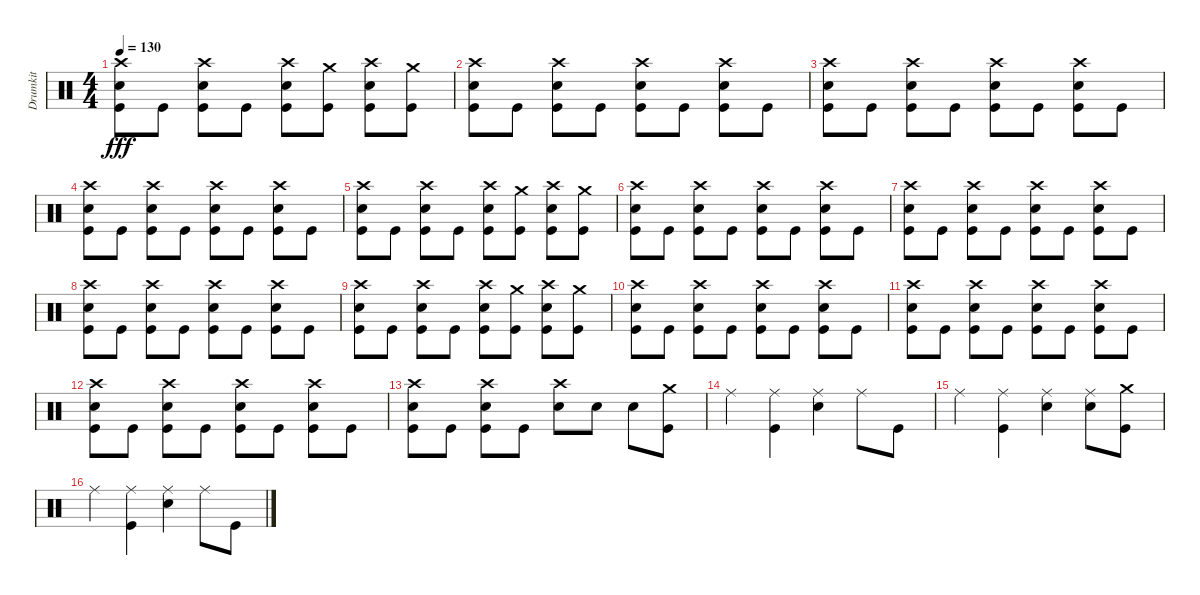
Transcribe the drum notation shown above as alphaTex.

\track ("Drumkit" "Drumkit") {instrument percussion}
\staff {score}
\articulation defaults
\ts (4 4)
\tempo 130
\clef neutral
\ks c
("Kick (hit)" "Snare (hit) 2" "Crash high (hit)").8{dy fff} "Kick (hit)".8 ("Kick (hit)" "Snare (hit) 2" "Crash high (hit)").8 "Kick (hit)".8 ("Kick (hit)" "Snare (hit) 2" "Crash high (hit)").8 ("Kick (hit)" "Crash medium (hit)").8 ("Kick (hit)" "Snare (hit) 2" "Crash high (hit)").8 ("Kick (hit)" "Crash medium (hit)").8 |
("Kick (hit)" "Snare (hit) 2" "Crash high (hit)").8 "Kick (hit)".8 ("Kick (hit)" "Snare (hit) 2" "Crash high (hit)").8 "Kick (hit)".8 ("Kick (hit)" "Snare (hit) 2" "Crash high (hit)").8 "Kick (hit)".8 ("Kick (hit)" "Snare (hit) 2" "Crash high (hit)").8 "Kick (hit)".8 |
("Kick (hit)" "Snare (hit) 2" "Crash high (hit)").8 "Kick (hit)".8 ("Kick (hit)" "Snare (hit) 2" "Crash high (hit)").8 "Kick (hit)".8 ("Kick (hit)" "Snare (hit) 2" "Crash high (hit)").8 "Kick (hit)".8 ("Kick (hit)" "Snare (hit) 2" "Crash high (hit)").8 "Kick (hit)".8 |
("Kick (hit)" "Snare (hit) 2" "Crash high (hit)").8 "Kick (hit)".8 ("Kick (hit)" "Snare (hit) 2" "Crash high (hit)").8 "Kick (hit)".8 ("Kick (hit)" "Snare (hit) 2" "Crash high (hit)").8 "Kick (hit)".8 ("Kick (hit)" "Snare (hit) 2" "Crash high (hit)").8 "Kick (hit)".8 |
("Kick (hit)" "Snare (hit) 2" "Crash high (hit)").8 "Kick (hit)".8 ("Kick (hit)" "Snare (hit) 2" "Crash high (hit)").8 "Kick (hit)".8 ("Kick (hit)" "Snare (hit) 2" "Crash high (hit)").8 ("Kick (hit)" "Crash medium (hit)").8 ("Kick (hit)" "Snare (hit) 2" "Crash high (hit)").8 ("Kick (hit)" "Crash medium (hit)").8 |
("Kick (hit)" "Snare (hit) 2" "Crash high (hit)").8 "Kick (hit)".8 ("Kick (hit)" "Snare (hit) 2" "Crash high (hit)").8 "Kick (hit)".8 ("Kick (hit)" "Snare (hit) 2" "Crash high (hit)").8 "Kick (hit)".8 ("Kick (hit)" "Snare (hit) 2" "Crash high (hit)").8 "Kick (hit)".8 |
("Kick (hit)" "Snare (hit) 2" "Crash high (hit)").8 "Kick (hit)".8 ("Kick (hit)" "Snare (hit) 2" "Crash high (hit)").8 "Kick (hit)".8 ("Kick (hit)" "Snare (hit) 2" "Crash high (hit)").8 "Kick (hit)".8 ("Kick (hit)" "Snare (hit) 2" "Crash high (hit)").8 "Kick (hit)".8 |
("Kick (hit)" "Snare (hit) 2" "Crash high (hit)").8 "Kick (hit)".8 ("Kick (hit)" "Snare (hit) 2" "Crash high (hit)").8 "Kick (hit)".8 ("Kick (hit)" "Snare (hit) 2" "Crash high (hit)").8 "Kick (hit)".8 ("Kick (hit)" "Snare (hit) 2" "Crash high (hit)").8 "Kick (hit)".8 |
("Kick (hit)" "Snare (hit) 2" "Crash high (hit)").8 "Kick (hit)".8 ("Kick (hit)" "Snare (hit) 2" "Crash high (hit)").8 "Kick (hit)".8 ("Kick (hit)" "Snare (hit) 2" "Crash high (hit)").8 ("Kick (hit)" "Crash medium (hit)").8 ("Kick (hit)" "Snare (hit) 2" "Crash high (hit)").8 ("Kick (hit)" "Crash medium (hit)").8 |
("Kick (hit)" "Snare (hit) 2" "Crash high (hit)").8 "Kick (hit)".8 ("Kick (hit)" "Snare (hit) 2" "Crash high (hit)").8 "Kick (hit)".8 ("Kick (hit)" "Snare (hit) 2" "Crash high (hit)").8 "Kick (hit)".8 ("Kick (hit)" "Snare (hit) 2" "Crash high (hit)").8 "Kick (hit)".8 |
("Kick (hit)" "Snare (hit) 2" "Crash high (hit)").8 "Kick (hit)".8 ("Kick (hit)" "Snare (hit) 2" "Crash high (hit)").8 "Kick (hit)".8 ("Kick (hit)" "Snare (hit) 2" "Crash high (hit)").8 "Kick (hit)".8 ("Kick (hit)" "Snare (hit) 2" "Crash high (hit)").8 "Kick (hit)".8 |
("Kick (hit)" "Snare (hit) 2" "Crash high (hit)").8 "Kick (hit)".8 ("Kick (hit)" "Snare (hit) 2" "Crash high (hit)").8 "Kick (hit)".8 ("Kick (hit)" "Snare (hit) 2" "Crash high (hit)").8 "Kick (hit)".8 ("Kick (hit)" "Snare (hit) 2" "Crash high (hit)").8 "Kick (hit)".8 |
("Kick (hit)" "Snare (hit) 2" "Crash high (hit)").8 "Kick (hit)".8 ("Kick (hit)" "Snare (hit) 2" "Crash high (hit)").8 "Kick (hit)".8 ("Snare (hit) 2" "Crash high (hit)").8 "Snare (hit) 2".8 "Snare (hit) 2".8 ("Crash medium (hit)" "Kick (hit)").8 |
"Ride (middle)".4 ("Ride (middle)" "Kick (hit)").4 ("Ride (middle)" "Snare (hit) 2").4 "Ride (middle)".8 "Kick (hit)".8 |
"Ride (middle)".4 ("Ride (middle)" "Kick (hit)").4 ("Ride (middle)" "Snare (hit) 2").4 ("Ride (middle)" "Snare (hit) 2").8 ("Kick (hit)" "Crash medium (hit)").8 |
"Ride (middle)".4 ("Ride (middle)" "Kick (hit)").4 ("Ride (middle)" "Snare (hit) 2").4 "Ride (middle)".8 "Kick (hit)".8
